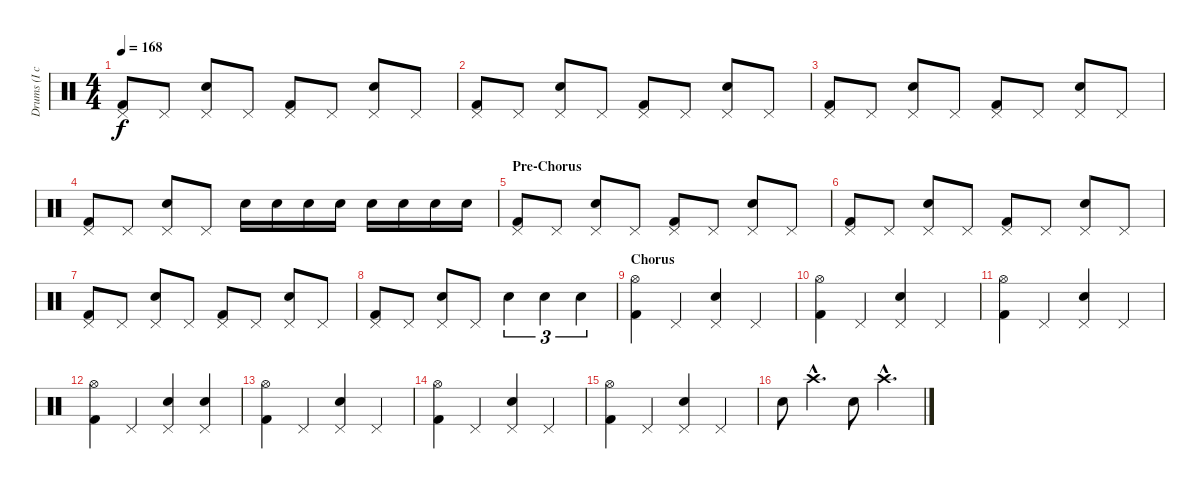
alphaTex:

\track ("Drums (I can't tab drums too well...)" "Drums (I c") {instrument percussion}
\staff {score}
\articulation defaults
\ts (4 4)
\tempo 168
\clef neutral
\ks c
("Pedal Hi-Hat (hit)" "Kick (hit) 2").8{dy f} "Pedal Hi-Hat (hit)".8 ("Pedal Hi-Hat (hit)" "Snare (hit) 2").8 "Pedal Hi-Hat (hit)".8 ("Pedal Hi-Hat (hit)" "Kick (hit) 2").8 "Pedal Hi-Hat (hit)".8 ("Pedal Hi-Hat (hit)" "Snare (hit) 2").8 "Pedal Hi-Hat (hit)".8 |
("Pedal Hi-Hat (hit)" "Kick (hit) 2").8 "Pedal Hi-Hat (hit)".8 ("Pedal Hi-Hat (hit)" "Snare (hit) 2").8 "Pedal Hi-Hat (hit)".8 ("Pedal Hi-Hat (hit)" "Kick (hit) 2").8 "Pedal Hi-Hat (hit)".8 ("Pedal Hi-Hat (hit)" "Snare (hit) 2").8 "Pedal Hi-Hat (hit)".8 |
("Pedal Hi-Hat (hit)" "Kick (hit) 2").8 "Pedal Hi-Hat (hit)".8 ("Pedal Hi-Hat (hit)" "Snare (hit) 2").8 "Pedal Hi-Hat (hit)".8 ("Pedal Hi-Hat (hit)" "Kick (hit) 2").8 "Pedal Hi-Hat (hit)".8 ("Pedal Hi-Hat (hit)" "Snare (hit) 2").8 "Pedal Hi-Hat (hit)".8 |
("Pedal Hi-Hat (hit)" "Kick (hit) 2").8 "Pedal Hi-Hat (hit)".8 ("Pedal Hi-Hat (hit)" "Snare (hit) 2").8 "Pedal Hi-Hat (hit)".8 "Snare (hit) 2".16 "Snare (hit) 2".16 "Snare (hit) 2".16 "Snare (hit) 2".16 "Snare (hit) 2".16 "Snare (hit) 2".16 "Snare (hit) 2".16 "Snare (hit) 2".16 |
\section ("" "Pre-Chorus")
("Pedal Hi-Hat (hit)" "Kick (hit) 2").8 "Pedal Hi-Hat (hit)".8 ("Pedal Hi-Hat (hit)" "Snare (hit) 2").8 "Pedal Hi-Hat (hit)".8 ("Pedal Hi-Hat (hit)" "Kick (hit) 2").8 "Pedal Hi-Hat (hit)".8 ("Pedal Hi-Hat (hit)" "Snare (hit) 2").8 "Pedal Hi-Hat (hit)".8 |
("Pedal Hi-Hat (hit)" "Kick (hit) 2").8 "Pedal Hi-Hat (hit)".8 ("Pedal Hi-Hat (hit)" "Snare (hit) 2").8 "Pedal Hi-Hat (hit)".8 ("Pedal Hi-Hat (hit)" "Kick (hit) 2").8 "Pedal Hi-Hat (hit)".8 ("Pedal Hi-Hat (hit)" "Snare (hit) 2").8 "Pedal Hi-Hat (hit)".8 |
("Pedal Hi-Hat (hit)" "Kick (hit) 2").8 "Pedal Hi-Hat (hit)".8 ("Pedal Hi-Hat (hit)" "Snare (hit) 2").8 "Pedal Hi-Hat (hit)".8 ("Pedal Hi-Hat (hit)" "Kick (hit) 2").8 "Pedal Hi-Hat (hit)".8 ("Pedal Hi-Hat (hit)" "Snare (hit) 2").8 "Pedal Hi-Hat (hit)".8 |
("Pedal Hi-Hat (hit)" "Kick (hit) 2").8 "Pedal Hi-Hat (hit)".8 ("Pedal Hi-Hat (hit)" "Snare (hit) 2").8 "Pedal Hi-Hat (hit)".8 "Snare (hit) 2".4{tu (3 2)} "Snare (hit) 2".4{tu (3 2)} "Snare (hit) 2".4{tu (3 2)} |
\section ("" "Chorus")
("Hi-Hat (open)" "Kick (hit) 2").4 "Pedal Hi-Hat (hit)".4 ("Pedal Hi-Hat (hit)" "Snare (hit) 2").4 "Pedal Hi-Hat (hit)".4 |
("Hi-Hat (open)" "Kick (hit) 2").4 "Pedal Hi-Hat (hit)".4 ("Pedal Hi-Hat (hit)" "Snare (hit) 2").4 "Pedal Hi-Hat (hit)".4 |
("Hi-Hat (open)" "Kick (hit) 2").4 "Pedal Hi-Hat (hit)".4 ("Pedal Hi-Hat (hit)" "Snare (hit) 2").4 "Pedal Hi-Hat (hit)".4 |
("Hi-Hat (open)" "Kick (hit) 2").4 "Pedal Hi-Hat (hit)".4 ("Pedal Hi-Hat (hit)" "Snare (hit) 2").4 ("Pedal Hi-Hat (hit)" "Snare (hit) 2").4 |
("Hi-Hat (open)" "Kick (hit) 2").4 "Pedal Hi-Hat (hit)".4 ("Pedal Hi-Hat (hit)" "Snare (hit) 2").4 "Pedal Hi-Hat (hit)".4 |
("Hi-Hat (open)" "Kick (hit) 2").4 "Pedal Hi-Hat (hit)".4 ("Pedal Hi-Hat (hit)" "Snare (hit) 2").4 "Pedal Hi-Hat (hit)".4 |
("Hi-Hat (open)" "Kick (hit) 2").4 "Pedal Hi-Hat (hit)".4 ("Pedal Hi-Hat (hit)" "Snare (hit) 2").4 "Pedal Hi-Hat (hit)".4 |
"Snare (hit) 2".8 "Crash high (hit)"{hac}.4{d} "Snare (hit) 2".8 "Crash high (hit)"{hac}.4{d}
